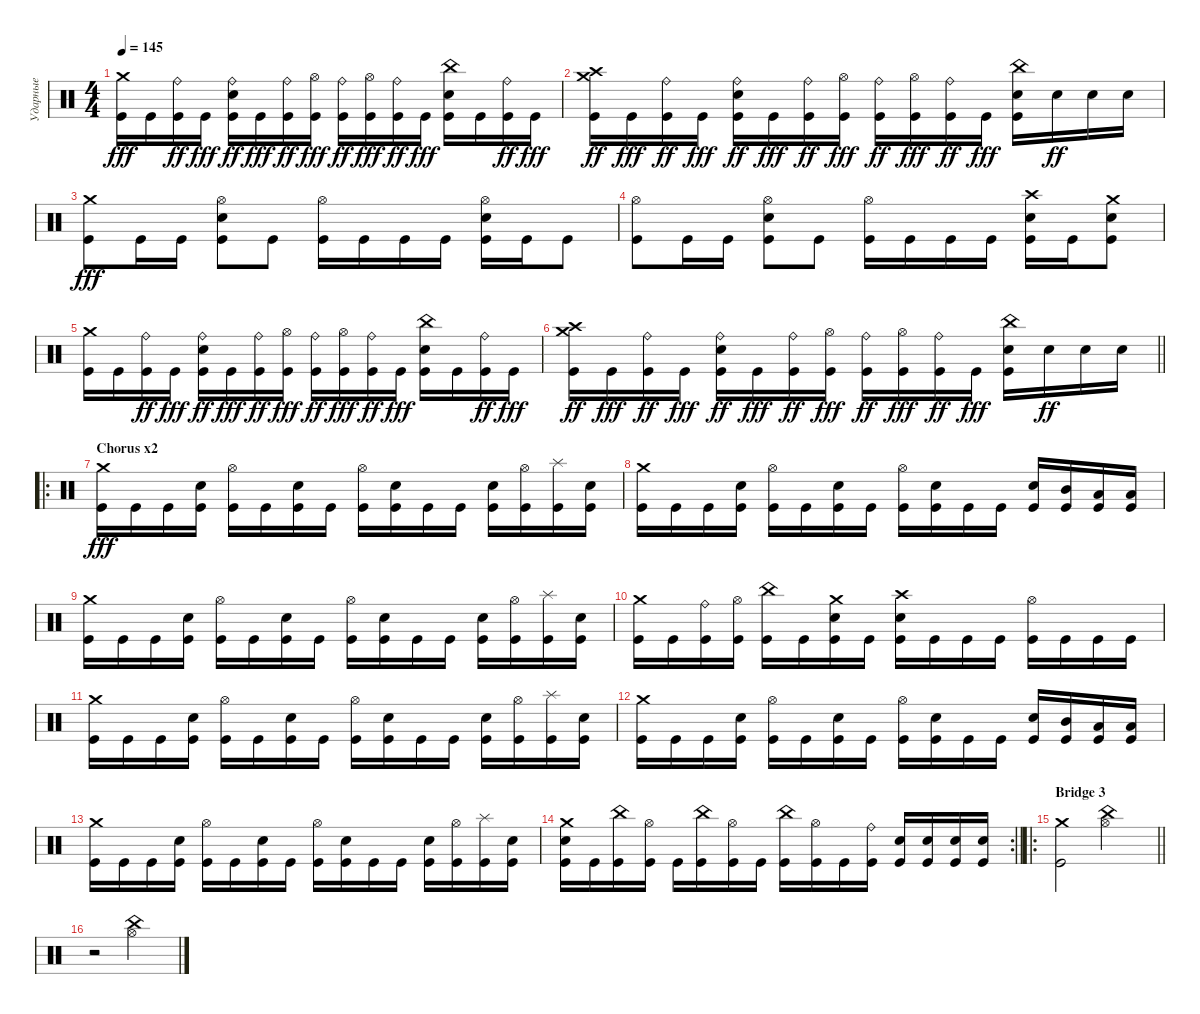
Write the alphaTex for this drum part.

\track ("Ударные" "Ударные") {instrument percussion}
\staff {score}
\articulation defaults
\ts (4 4)
\tempo 145
\clef neutral
\ks c
("Kick (hit)" "Crash medium (hit)").16{dy fff} "Kick (hit)".16 ("Kick (hit)" "Ride (bell)").16{dy ff} "Kick (hit)".16{dy fff} ("Kick (hit)" "Electric Snare (hit)" "Ride (bell)").16{dy ff} "Kick (hit)".16{dy fff} ("Kick (hit)" "Ride (bell)").16{dy ff} ("Kick (hit)" "Hi-Hat (open)").16{dy fff} ("Kick (hit)" "Ride (bell)").16{dy ff} ("Kick (hit)" "Hi-Hat (open)").16{dy fff} ("Kick (hit)" "Ride (bell)").16{dy ff} "Kick (hit)".16{dy fff} ("Kick (hit)" "Electric Snare (hit)" "China (hit)").16 "Kick (hit)".16 ("Kick (hit)" "Ride (bell)").16{dy ff} "Kick (hit)".16{dy fff} |
("Kick (hit)" "Crash medium (hit)" "Crash high (hit)").16{dy ff} "Kick (hit)".16{dy fff} ("Kick (hit)" "Ride (bell)").16{dy ff} "Kick (hit)".16{dy fff} ("Kick (hit)" "Electric Snare (hit)" "Ride (bell)").16{dy ff} "Kick (hit)".16{dy fff} ("Kick (hit)" "Ride (bell)").16{dy ff} ("Kick (hit)" "Hi-Hat (open)").16{dy fff} ("Kick (hit)" "Ride (bell)").16{dy ff} ("Kick (hit)" "Hi-Hat (open)").16{dy fff} ("Kick (hit)" "Ride (bell)").16{dy ff} "Kick (hit)".16{dy fff} ("Kick (hit)" "Electric Snare (hit)" "China (hit)").16 "Electric Snare (hit)".16{dy ff} "Electric Snare (hit)".16 "Electric Snare (hit)".16 |
("Kick (hit)" "Crash medium (hit)").8{dy fff} "Kick (hit)".16 "Kick (hit)".16 ("Kick (hit)" "Electric Snare (hit)" "Hi-Hat (open)").8 "Kick (hit)".8 ("Kick (hit)" "Hi-Hat (open)").16 "Kick (hit)".16 "Kick (hit)".16 "Kick (hit)".16 ("Kick (hit)" "Electric Snare (hit)" "Hi-Hat (open)").16 "Kick (hit)".16 "Kick (hit)".8 |
("Kick (hit)" "Hi-Hat (open)").8 "Kick (hit)".16 "Kick (hit)".16 ("Kick (hit)" "Electric Snare (hit)" "Hi-Hat (open)").8 "Kick (hit)".8 ("Kick (hit)" "Hi-Hat (open)").16 "Kick (hit)".16 "Kick (hit)".16 "Kick (hit)".16 ("Kick (hit)" "Electric Snare (hit)" "Crash high (hit)").16 "Kick (hit)".16 ("Kick (hit)" "Electric Snare (hit)" "Crash medium (hit)").8 |
("Kick (hit)" "Crash medium (hit)").16 "Kick (hit)".16 ("Kick (hit)" "Ride (bell)").16{dy ff} "Kick (hit)".16{dy fff} ("Kick (hit)" "Electric Snare (hit)" "Ride (bell)").16{dy ff} "Kick (hit)".16{dy fff} ("Kick (hit)" "Ride (bell)").16{dy ff} ("Kick (hit)" "Hi-Hat (open)").16{dy fff} ("Kick (hit)" "Ride (bell)").16{dy ff} ("Kick (hit)" "Hi-Hat (open)").16{dy fff} ("Kick (hit)" "Ride (bell)").16{dy ff} "Kick (hit)".16{dy fff} ("Kick (hit)" "Electric Snare (hit)" "China (hit)").16 "Kick (hit)".16 ("Kick (hit)" "Ride (bell)").16{dy ff} "Kick (hit)".16{dy fff} |
\barLineRight lightlight
("Kick (hit)" "Crash medium (hit)" "Crash high (hit)").16{dy ff} "Kick (hit)".16{dy fff} ("Kick (hit)" "Ride (bell)").16{dy ff} "Kick (hit)".16{dy fff} ("Kick (hit)" "Electric Snare (hit)" "Ride (bell)").16{dy ff} "Kick (hit)".16{dy fff} ("Kick (hit)" "Ride (bell)").16{dy ff} ("Kick (hit)" "Hi-Hat (open)").16{dy fff} ("Kick (hit)" "Ride (bell)").16{dy ff} ("Kick (hit)" "Hi-Hat (open)").16{dy fff} ("Kick (hit)" "Ride (bell)").16{dy ff} "Kick (hit)".16{dy fff} ("Kick (hit)" "Electric Snare (hit)" "China (hit)").16 "Electric Snare (hit)".16{dy ff} "Electric Snare (hit)".16 "Electric Snare (hit)".16 |
\ro
\section ("" "Chorus x2")
("Crash medium (hit)" "Kick (hit)").16{dy fff} "Kick (hit)".16 "Kick (hit)".16 ("Kick (hit)" "Electric Snare (hit)").16 ("Kick (hit)" "Hi-Hat (open)").16 "Kick (hit)".16 ("Kick (hit)" "Electric Snare (hit)").16 "Kick (hit)".16 ("Kick (hit)" "Hi-Hat (open)").16 ("Kick (hit)" "Electric Snare (hit)").16 "Kick (hit)".16 "Kick (hit)".16 ("Kick (hit)" "Electric Snare (hit)").16 ("Kick (hit)" "Hi-Hat (open)").16 ("Kick (hit)" "Splash (hit)").16 ("Kick (hit)" "Electric Snare (hit)").16 |
("Crash medium (hit)" "Kick (hit)").16 "Kick (hit)".16 "Kick (hit)".16 ("Kick (hit)" "Electric Snare (hit)").16 ("Kick (hit)" "Hi-Hat (open)").16 "Kick (hit)".16 ("Kick (hit)" "Electric Snare (hit)").16 "Kick (hit)".16 ("Kick (hit)" "Hi-Hat (open)").16 ("Kick (hit)" "Electric Snare (hit)").16 "Kick (hit)".16 "Kick (hit)".16 ("Kick (hit)" "Electric Snare (hit)").16 ("Kick (hit)" "Mid Tom (hit)").16 ("Kick (hit)" "Low Tom (hit)").16 ("Kick (hit)" "Low Tom (hit)").16 |
("Crash medium (hit)" "Kick (hit)").16 "Kick (hit)".16 "Kick (hit)".16 ("Kick (hit)" "Electric Snare (hit)").16 ("Kick (hit)" "Hi-Hat (open)").16 "Kick (hit)".16 ("Kick (hit)" "Electric Snare (hit)").16 "Kick (hit)".16 ("Kick (hit)" "Hi-Hat (open)").16 ("Kick (hit)" "Electric Snare (hit)").16 "Kick (hit)".16 "Kick (hit)".16 ("Kick (hit)" "Electric Snare (hit)").16 ("Kick (hit)" "Hi-Hat (open)").16 ("Kick (hit)" "Splash (hit)").16 ("Kick (hit)" "Electric Snare (hit)").16 |
("Crash medium (hit)" "Kick (hit)").16 "Kick (hit)".16 ("Kick (hit)" "Ride (bell)").16 ("Kick (hit)" "Hi-Hat (open)").16 ("Kick (hit)" "China (hit)").16 "Kick (hit)".16 ("Kick (hit)" "Electric Snare (hit)" "Crash medium (hit)").16 "Kick (hit)".16 ("Kick (hit)" "Crash high (hit)" "Electric Snare (hit)").16 "Kick (hit)".16 "Kick (hit)".16 "Kick (hit)".16 ("Kick (hit)" "Hi-Hat (open)").16 "Kick (hit)".16 "Kick (hit)".16 "Kick (hit)".16 |
("Crash medium (hit)" "Kick (hit)").16 "Kick (hit)".16 "Kick (hit)".16 ("Kick (hit)" "Electric Snare (hit)").16 ("Kick (hit)" "Hi-Hat (open)").16 "Kick (hit)".16 ("Kick (hit)" "Electric Snare (hit)").16 "Kick (hit)".16 ("Kick (hit)" "Hi-Hat (open)").16 ("Kick (hit)" "Electric Snare (hit)").16 "Kick (hit)".16 "Kick (hit)".16 ("Kick (hit)" "Electric Snare (hit)").16 ("Kick (hit)" "Hi-Hat (open)").16 ("Kick (hit)" "Splash (hit)").16 ("Kick (hit)" "Electric Snare (hit)").16 |
("Crash medium (hit)" "Kick (hit)").16 "Kick (hit)".16 "Kick (hit)".16 ("Kick (hit)" "Electric Snare (hit)").16 ("Kick (hit)" "Hi-Hat (open)").16 "Kick (hit)".16 ("Kick (hit)" "Electric Snare (hit)").16 "Kick (hit)".16 ("Kick (hit)" "Hi-Hat (open)").16 ("Kick (hit)" "Electric Snare (hit)").16 "Kick (hit)".16 "Kick (hit)".16 ("Kick (hit)" "Electric Snare (hit)").16 ("Kick (hit)" "Mid Tom (hit)").16 ("Kick (hit)" "Low Tom (hit)").16 ("Kick (hit)" "Low Tom (hit)").16 |
("Crash medium (hit)" "Kick (hit)").16 "Kick (hit)".16 "Kick (hit)".16 ("Kick (hit)" "Electric Snare (hit)").16 ("Kick (hit)" "Hi-Hat (open)").16 "Kick (hit)".16 ("Kick (hit)" "Electric Snare (hit)").16 "Kick (hit)".16 ("Kick (hit)" "Hi-Hat (open)").16 ("Kick (hit)" "Electric Snare (hit)").16 "Kick (hit)".16 "Kick (hit)".16 ("Kick (hit)" "Electric Snare (hit)").16 ("Kick (hit)" "Hi-Hat (open)").16 ("Kick (hit)" "Splash (hit)").16 ("Kick (hit)" "Electric Snare (hit)").16 |
\rc 2
\barLineRight lightlight
("Crash medium (hit)" "Kick (hit)" "Electric Snare (hit)").16 "Kick (hit)".16 ("Kick (hit)" "China (hit)").16 ("Kick (hit)" "Hi-Hat (open)").16 "Kick (hit)".16 ("Kick (hit)" "China (hit)").16 ("Kick (hit)" "Hi-Hat (open)").16 "Kick (hit)".16 ("Kick (hit)" "China (hit)").16 ("Kick (hit)" "Hi-Hat (open)").16 "Kick (hit)".16 ("Kick (hit)" "Ride (bell)").16 ("Kick (hit)" "Electric Snare (hit)").16 ("Kick (hit)" "Electric Snare (hit)").16 ("Kick (hit)" "Electric Snare (hit)").16 ("Kick (hit)" "Electric Snare (hit)").16 |
\ro
\section ("" "Bridge 3")
\barLineRight lightlight
("Crash medium (hit)" "Kick (hit)").2 ("Hi-Hat (open)" "China (hit)").2 |
\section ("" "")
r.2 ("Hi-Hat (open)" "China (hit)").2
